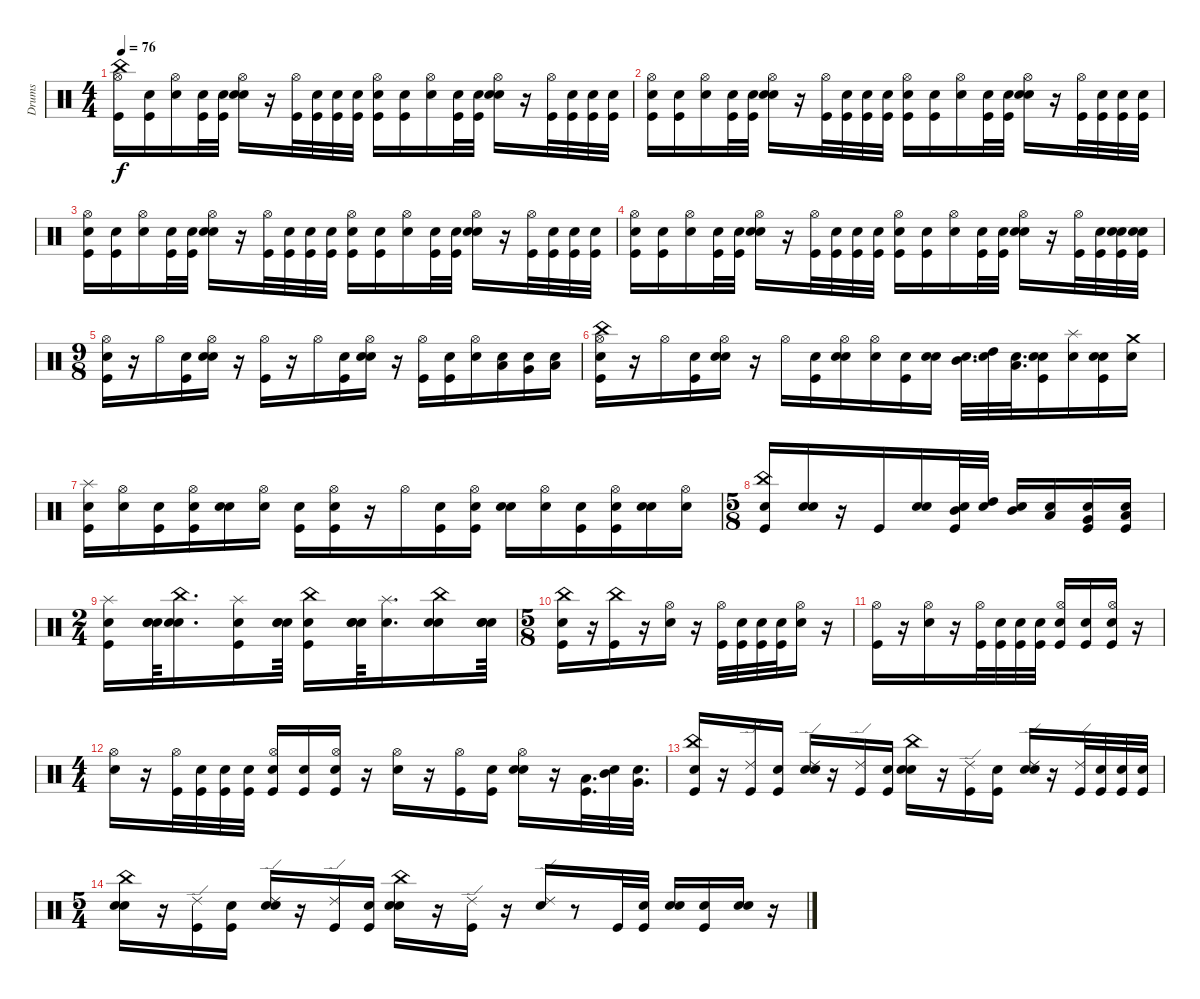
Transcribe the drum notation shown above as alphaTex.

\track ("Drums" "Drums") {instrument percussion}
\staff {score}
\articulation defaults
\ts (4 4)
\tempo 76
\clef neutral
\ks c
("Kick (hit)" "Hi-Hat (open)" "China (hit)").16{dy f} ("Snare (hit)" "Kick (hit)").16 ("Snare (hit)" "Hi-Hat (open)").16 ("Snare (hit)" "Kick (hit)").32 ("Snare (hit)" "Kick (hit)").32 ("Snare (hit)" "Snare (hit) 2" "Hi-Hat (open)").16 r.16 ("Kick (hit)" "Hi-Hat (open)").32 ("Snare (hit)" "Kick (hit)").32 ("Snare (hit)" "Kick (hit)").32 ("Snare (hit)" "Kick (hit)").32 ("Snare (hit)" "Kick (hit)" "Hi-Hat (open)").16 ("Snare (hit)" "Kick (hit)").16 ("Snare (hit)" "Hi-Hat (open)").16 ("Snare (hit)" "Kick (hit)").32 ("Snare (hit)" "Kick (hit)").32 ("Snare (hit)" "Snare (hit) 2" "Hi-Hat (open)").16 r.16 ("Kick (hit)" "Hi-Hat (open)").32 ("Snare (hit)" "Kick (hit)").32 ("Snare (hit)" "Kick (hit)").32 ("Snare (hit)" "Kick (hit)").32 |
("Snare (hit)" "Kick (hit)" "Hi-Hat (open)").16 ("Snare (hit)" "Kick (hit)").16 ("Snare (hit)" "Hi-Hat (open)").16 ("Snare (hit)" "Kick (hit)").32 ("Snare (hit)" "Kick (hit)").32 ("Snare (hit)" "Snare (hit) 2" "Hi-Hat (open)").16 r.16 ("Kick (hit)" "Hi-Hat (open)").32 ("Snare (hit)" "Kick (hit)").32 ("Snare (hit)" "Kick (hit)").32 ("Snare (hit)" "Kick (hit)").32 ("Snare (hit)" "Kick (hit)" "Hi-Hat (open)").16 ("Snare (hit)" "Kick (hit)").16 ("Snare (hit)" "Hi-Hat (open)").16 ("Snare (hit)" "Kick (hit)").32 ("Snare (hit)" "Kick (hit)").32 ("Snare (hit)" "Snare (hit) 2" "Hi-Hat (open)").16 r.16 ("Kick (hit)" "Hi-Hat (open)").32 ("Snare (hit)" "Kick (hit)").32 ("Snare (hit)" "Kick (hit)").32 ("Snare (hit)" "Kick (hit)").32 |
("Snare (hit)" "Kick (hit)" "Hi-Hat (open)").16 ("Snare (hit)" "Kick (hit)").16 ("Snare (hit)" "Hi-Hat (open)").16 ("Snare (hit)" "Kick (hit)").32 ("Snare (hit)" "Kick (hit)").32 ("Snare (hit)" "Snare (hit) 2" "Hi-Hat (open)").16 r.16 ("Kick (hit)" "Hi-Hat (open)").32 ("Snare (hit)" "Kick (hit)").32 ("Snare (hit)" "Kick (hit)").32 ("Snare (hit)" "Kick (hit)").32 ("Snare (hit)" "Kick (hit)" "Hi-Hat (open)").16 ("Snare (hit)" "Kick (hit)").16 ("Snare (hit)" "Hi-Hat (open)").16 ("Snare (hit)" "Kick (hit)").32 ("Snare (hit)" "Kick (hit)").32 ("Snare (hit)" "Snare (hit) 2" "Hi-Hat (open)").16 r.16 ("Kick (hit)" "Hi-Hat (open)").32 ("Snare (hit)" "Kick (hit)").32 ("Snare (hit)" "Kick (hit)").32 ("Snare (hit)" "Kick (hit)").32 |
("Snare (hit)" "Kick (hit)" "Hi-Hat (open)").16 ("Snare (hit)" "Kick (hit)").16 ("Snare (hit)" "Hi-Hat (open)").16 ("Snare (hit)" "Kick (hit)").32 ("Snare (hit)" "Kick (hit)").32 ("Snare (hit)" "Snare (hit) 2" "Hi-Hat (open)").16 r.16 ("Kick (hit)" "Hi-Hat (open)").32 ("Snare (hit)" "Kick (hit)").32 ("Snare (hit)" "Kick (hit)").32 ("Snare (hit)" "Kick (hit)").32 ("Snare (hit)" "Kick (hit)" "Hi-Hat (open)").16 ("Snare (hit)" "Kick (hit)").16 ("Snare (hit)" "Hi-Hat (open)").16 ("Snare (hit)" "Kick (hit)").32 ("Snare (hit)" "Kick (hit)").32 ("Snare (hit)" "Snare (hit) 2" "Hi-Hat (open)").16 r.16 ("Kick (hit)" "Hi-Hat (open)").32 ("Snare (hit)" "Kick (hit)").32 ("Snare (hit)" "Kick (hit)" "Snare (hit) 2").32 ("Snare (hit)" "Kick (hit)" "Snare (hit) 2").32 |
\ts (9 8)
("Snare (hit)" "Kick (hit)" "Hi-Hat (open)").16 r.16 "Hi-Hat (open)".16 ("Snare (hit)" "Kick (hit)").16 ("Snare (hit)" "Snare (hit) 2" "Hi-Hat (open)").16 r.16 ("Kick (hit)" "Hi-Hat (open)").16 r.16 "Hi-Hat (open)".16 ("Snare (hit)" "Kick (hit)").16 ("Snare (hit)" "Snare (hit) 2" "Hi-Hat (open)").16 r.16 ("Kick (hit)" "Hi-Hat (open)").16 ("Snare (hit)" "Kick (hit)").16 ("Snare (hit)" "Hi-Hat (open)").16 ("Snare (hit)" "Low Tom (hit)").16 ("Snare (hit)" "Very Low Tom (hit)").16 ("Snare (hit)" "Low Floor Tom (hit)").16 |
("Snare (hit)" "Kick (hit)" "Hi-Hat (open)" "China (hit)").16 r.16 "Hi-Hat (open)".16 ("Snare (hit)" "Kick (hit)").16 ("Snare (hit)" "Snare (hit) 2" "Hi-Hat (open)").16 r.16 "Hi-Hat (open)".16 ("Snare (hit)" "Kick (hit)").16 ("Snare (hit)" "Snare (hit) 2" "Hi-Hat (open)").16 ("Snare (hit)" "Hi-Hat (open)").16 ("Snare (hit)" "Kick (hit)").16 ("Snare (hit)" "Snare (hit) 2").16 ("Snare (hit)" "Mid Tom (hit)").32{d} ("Snare (hit)" "High Tom (hit)").32 ("Snare (hit)" "Low Tom (hit)").32{d} ("Snare (hit)" "Kick (hit)" "Snare (hit) 2").16 ("Snare (hit)" "Splash (hit)").16 ("Snare (hit)" "Kick (hit)" "Snare (hit) 2").16 ("Snare (hit)" "Crash medium (hit)").16 |
("Snare (hit)" "Kick (hit)" "Splash (hit)").16 ("Snare (hit)" "Hi-Hat (open)").16 ("Snare (hit)" "Kick (hit)").16 ("Snare (hit)" "Kick (hit)" "Hi-Hat (open)").16 ("Snare (hit)" "Snare (hit) 2").16 ("Snare (hit)" "Hi-Hat (open)").16 ("Snare (hit)" "Kick (hit)").16 ("Snare (hit)" "Kick (hit)" "Hi-Hat (open)").16 r.16 "Hi-Hat (open)".16 ("Snare (hit)" "Kick (hit)").16 ("Snare (hit)" "Kick (hit)" "Hi-Hat (open)").16 ("Snare (hit)" "Snare (hit) 2").16 ("Snare (hit)" "Hi-Hat (open)").16 ("Snare (hit)" "Kick (hit)").16 ("Snare (hit)" "Kick (hit)" "Hi-Hat (open)").16 ("Snare (hit)" "Snare (hit) 2").16 ("Snare (hit)" "Hi-Hat (open)").16 |
\ts (5 8)
("Snare (hit)" "Kick (hit)" "China (hit)").16 ("Snare (hit)" "Snare (hit) 2").16 r.16 "Kick (hit)".16 ("Snare (hit)" "Snare (hit) 2").16 ("Snare (hit)" "Kick (hit)" "Mid Tom (hit)").32 ("Snare (hit)" "High Tom (hit)").32 ("Snare (hit)" "Mid Tom (hit)").16 ("Snare (hit)" "Low Tom (hit)").16 ("Snare (hit)" "Kick (hit)" "Very Low Tom (hit)").16 ("Snare (hit)" "Kick (hit)" "Low Floor Tom (hit)").16 |
\ts (2 4)
("Snare (hit)" "Kick (hit)" "Splash (hit)").16 ("Snare (hit)" "Snare (hit)" "Snare (hit)").64 ("Snare (hit)" "Snare (hit) 2" "China (hit)").16{d} ("Snare (hit)" "Kick (hit)" "Splash (hit)").16 ("Snare (hit)" "Snare (hit)" "Snare (hit)").64 ("Snare (hit)" "Kick (hit)" "China (hit)").16 ("Snare (hit)" "Snare (hit)" "Snare (hit)").64 ("Snare (hit)" "Splash (hit)").16{d} ("Snare (hit)" "Snare (hit) 2" "China (hit)").16 ("Snare (hit)" "Snare (hit)" "Snare (hit)").64 |
\ts (5 8)
("Snare (hit)" "Kick (hit)" "China (hit)").16 r.16 ("Kick (hit)" "China (hit)").16 r.16 ("Snare (hit) 2" "Hi-Hat (open)").16 r.16 ("Kick (hit)" "Hi-Hat (open)").32 ("Snare (hit)" "Kick (hit)").32 ("Snare (hit)" "Kick (hit)").32 ("Snare (hit)" "Kick (hit)").32 ("Snare (hit)" "Hi-Hat (open)").16 r.16 |
("Kick (hit)" "Hi-Hat (open)").16 r.16 ("Snare (hit) 2" "Hi-Hat (open)").16 r.16 ("Kick (hit)" "Hi-Hat (open)").32 ("Snare (hit)" "Kick (hit)").32 ("Snare (hit)" "Kick (hit)").32 ("Snare (hit)" "Kick (hit)").32 ("Snare (hit)" "Kick (hit)" "Hi-Hat (open)").16 ("Snare (hit)" "Kick (hit)").16 ("Snare (hit)" "Kick (hit)" "Hi-Hat (open)").16 r.16 |
\ts (4 4)
("Snare (hit) 2" "Hi-Hat (open)").16 r.16 ("Kick (hit)" "Hi-Hat (open)").32 ("Snare (hit)" "Kick (hit)").32 ("Snare (hit)" "Kick (hit)").32 ("Snare (hit)" "Kick (hit)").32 ("Snare (hit)" "Kick (hit)" "Hi-Hat (open)").16 ("Snare (hit)" "Kick (hit)").16 ("Snare (hit)" "Kick (hit)" "Hi-Hat (open)").16 r.16 ("Snare (hit) 2" "Hi-Hat (open)").16 r.16 ("Kick (hit)" "Hi-Hat (open)").16 ("Snare (hit)" "Kick (hit)").16 ("Snare (hit)" "Snare (hit) 2" "Hi-Hat (open)").16 r.16 ("Kick (hit)" "Low Tom (hit)").32{d} ("Snare (hit)" "Mid Tom (hit)").32 ("Snare (hit)" "Very Low Tom (hit)").32{d} |
("Snare (hit)" "Kick (hit)" "China (hit)").16 r.16 ("Kick (hit)" "Ride (edge) 2").16 ("Snare (hit)" "Kick (hit)").16 ("Snare (hit)" "Snare (hit) 2" "Ride (edge) 2").16 r.16 ("Kick (hit)" "Ride (edge) 2").16 ("Snare (hit)" "Kick (hit)").16 ("Snare (hit)" "Snare (hit) 2" "China (hit)").16 r.16 ("Kick (hit)" "Ride (edge) 2").16 ("Snare (hit)" "Kick (hit)").16 ("Snare (hit)" "Snare (hit) 2" "Ride (edge) 2").16 r.16 ("Kick (hit)" "Ride (edge) 2").32 ("Snare (hit)" "Kick (hit)").32 ("Snare (hit)" "Kick (hit)").32 ("Snare (hit)" "Kick (hit)").32 |
\ts (5 4)
("Snare (hit)" "Snare (hit) 2" "China (hit)").16 r.16 ("Kick (hit)" "Ride (edge) 2").16 ("Snare (hit)" "Kick (hit)").16 ("Snare (hit)" "Snare (hit) 2" "Ride (edge) 2").16 r.16 ("Kick (hit)" "Ride (edge) 2").16 ("Snare (hit)" "Kick (hit)").16 ("Snare (hit)" "Snare (hit) 2" "China (hit)").16 r.16 ("Kick (hit)" "Ride (edge) 2").16 r.16 ("Snare (hit) 2" "Ride (edge) 2").16 r.8 "Kick (hit)".32 ("Snare (hit)" "Kick (hit)").32 ("Snare (hit)" "Snare (hit) 2").16 ("Snare (hit)" "Kick (hit)").16 ("Snare (hit)" "Snare (hit) 2").16 r.16
